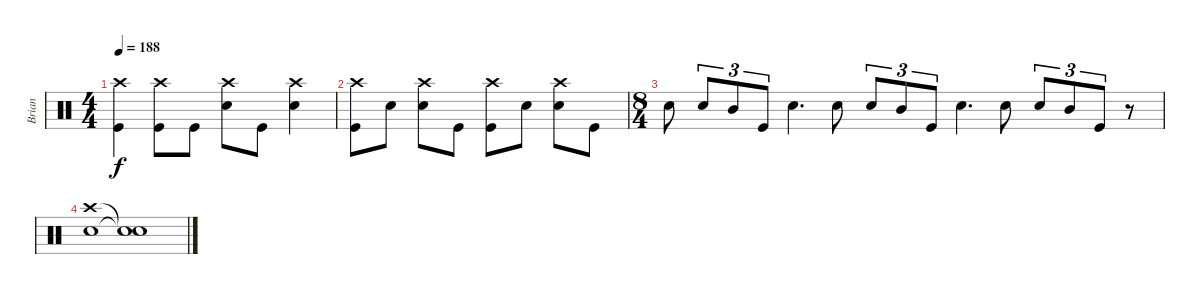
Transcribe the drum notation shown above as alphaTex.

\track ("Brian" "Brian") {instrument percussion}
\staff {score}
\articulation defaults
\ts (4 4)
\tempo 188
\clef neutral
\ks c
("Crash high (hit)" "Kick (hit)").4{dy f} ("Crash high (hit)" "Kick (hit)").8 "Kick (hit)".8 ("Crash high (hit)" "Snare (hit) 2").8 "Kick (hit)".8 ("Crash high (hit)" "Snare (hit) 2").4 |
("Crash high (hit)" "Kick (hit)").8 "Snare (hit) 2".8 ("Crash high (hit)" "Snare (hit) 2").8 "Kick (hit)".8 ("Crash high (hit)" "Kick (hit)").8 "Snare (hit) 2".8 ("Crash high (hit)" "Snare (hit) 2").8 "Kick (hit)".8 |
\ts (8 4)
"Snare (hit) 2".8 "Snare (hit) 2".8{tu (3 2)} "Mid Tom (hit)".8{tu (3 2)} "Kick (hit)".8{tu (3 2)} "Snare (hit) 2".4{d} "Snare (hit) 2".8 "Snare (hit) 2".8{tu (3 2)} "Mid Tom (hit)".8{tu (3 2)} "Kick (hit)".8{tu (3 2)} "Snare (hit) 2".4{d} "Snare (hit) 2".8 "Snare (hit) 2".8{tu (3 2)} "Mid Tom (hit)".8{tu (3 2)} "Kick (hit)".8{tu (3 2)} r.8 |
("Crash high (hit)" "Snare (hit) 2").1 ("Snare (hit)"{t} "Snare (hit)"{t}).1
